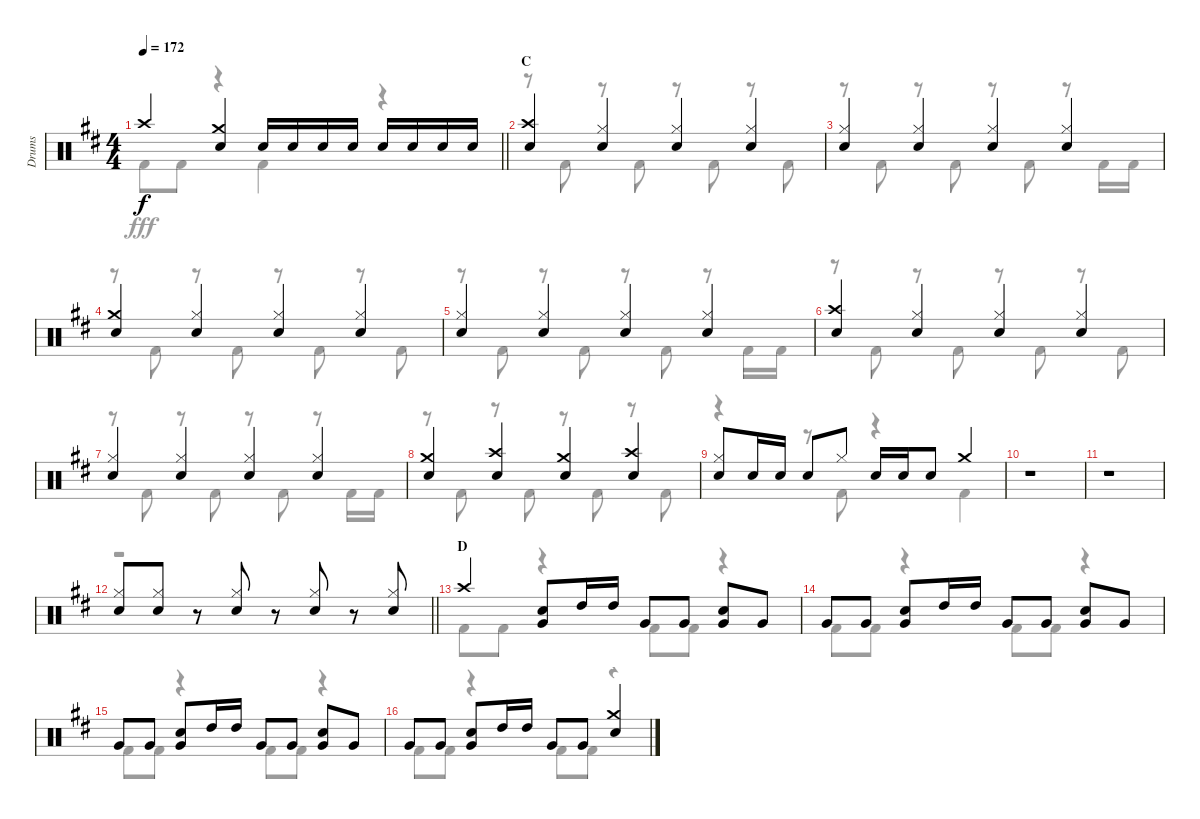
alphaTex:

\track ("Drums" "Drums") {instrument percussion}
\staff {score}
\articulation defaults
\voice
\ts (4 4)
\tempo 172
\clef neutral
\barLineRight lightlight
\ks d "Crash high (hit)".4{dy f}
("Crash medium (hit)" "Snare (hit) 2").4 "Snare (hit) 2".16 "Snare (hit) 2".16 "Snare (hit) 2".16 "Snare (hit) 2".16 "Snare (hit) 2".16 "Snare (hit) 2".16 "Snare (hit) 2".16 "Snare (hit) 2".16 |
\section ("" "C")
("Crash high (hit)" "Snare (hit) 2").4 ("Hi-Hat (closed)" "Snare (hit) 2").4 ("Hi-Hat (closed)" "Snare (hit) 2").4 ("Hi-Hat (closed)" "Snare (hit) 2").4 |
("Hi-Hat (closed)" "Snare (hit) 2").4 ("Hi-Hat (closed)" "Snare (hit) 2").4 ("Hi-Hat (closed)" "Snare (hit) 2").4 ("Hi-Hat (closed)" "Snare (hit) 2").4 |
("Crash medium (hit)" "Snare (hit) 2").4 ("Hi-Hat (closed)" "Snare (hit) 2").4 ("Hi-Hat (closed)" "Snare (hit) 2").4 ("Hi-Hat (closed)" "Snare (hit) 2").4 |
("Hi-Hat (closed)" "Snare (hit) 2").4 ("Hi-Hat (closed)" "Snare (hit) 2").4 ("Hi-Hat (closed)" "Snare (hit) 2").4 ("Hi-Hat (closed)" "Snare (hit) 2").4 |
("Crash high (hit)" "Snare (hit) 2").4 ("Hi-Hat (closed)" "Snare (hit) 2").4 ("Hi-Hat (closed)" "Snare (hit) 2").4 ("Hi-Hat (closed)" "Snare (hit) 2").4 |
("Hi-Hat (closed)" "Snare (hit) 2").4 ("Hi-Hat (closed)" "Snare (hit) 2").4 ("Hi-Hat (closed)" "Snare (hit) 2").4 ("Hi-Hat (closed)" "Snare (hit) 2").4 |
("Crash medium (hit)" "Snare (hit) 2").4 ("Crash high (hit)" "Snare (hit) 2").4 ("Crash medium (hit)" "Snare (hit) 2").4 ("Crash high (hit)" "Snare (hit) 2").4 |
("Hi-Hat (closed)" "Snare (hit) 2").8 "Snare (hit) 2".16 "Snare (hit) 2".16 "Snare (hit) 2".8 "Hi-Hat (closed)".8 "Snare (hit) 2".16 "Snare (hit) 2".16 "Snare (hit) 2".8 "Crash medium (hit)".4 |
r.1 |
r.1 |
\barLineRight lightlight
("Hi-Hat (closed)" "Snare (hit) 2").8 ("Hi-Hat (closed)" "Snare (hit) 2").8 r.8 ("Hi-Hat (closed)" "Snare (hit) 2").8 r.8 ("Hi-Hat (closed)" "Snare (hit) 2").8 r.8 ("Hi-Hat (closed)" "Snare (hit) 2").8 |
\section ("" "D")
"Crash high (hit)".4 ("Snare (hit) 2" "Very Low Tom (hit)").8 "High Tom (hit)".16 "High Tom (hit)".16 "Very Low Tom (hit)".8 "Very Low Tom (hit)".8 ("Snare (hit) 2" "Very Low Tom (hit)").8 "Very Low Tom (hit)".8 |
"Very Low Tom (hit)".8 "Very Low Tom (hit)".8 ("Snare (hit) 2" "Very Low Tom (hit)").8 "High Tom (hit)".16 "High Tom (hit)".16 "Very Low Tom (hit)".8 "Very Low Tom (hit)".8 ("Snare (hit) 2" "Very Low Tom (hit)").8 "Very Low Tom (hit)".8 |
"Very Low Tom (hit)".8 "Very Low Tom (hit)".8 ("Snare (hit) 2" "Very Low Tom (hit)").8 "High Tom (hit)".16 "High Tom (hit)".16 "Very Low Tom (hit)".8 "Very Low Tom (hit)".8 ("Snare (hit) 2" "Very Low Tom (hit)").8 "Very Low Tom (hit)".8 |
"Very Low Tom (hit)".8 "Very Low Tom (hit)".8 ("Snare (hit) 2" "Very Low Tom (hit)").8 "High Tom (hit)".16 "High Tom (hit)".16 "Very Low Tom (hit)".8 "Very Low Tom (hit)".8 ("Crash medium (hit)" "Snare (hit) 2").4
\voice
\clef neutral
\ottava regular
\simile none
\barLineRight lightlight
\ks d "Kick (hit) 2".8{dy fff} "Kick (hit) 2".8
r.4 "Kick (hit) 2".4 r.4 |
r.8 "Kick (hit) 2".8 r.8 "Kick (hit) 2".8 r.8 "Kick (hit) 2".8 r.8 "Kick (hit) 2".8 |
r.8 "Kick (hit) 2".8 r.8 "Kick (hit) 2".8 r.8 "Kick (hit) 2".8 r.8 "Kick (hit) 2".16 "Kick (hit) 2".16 |
r.8 "Kick (hit) 2".8 r.8 "Kick (hit) 2".8 r.8 "Kick (hit) 2".8 r.8 "Kick (hit) 2".8 |
r.8 "Kick (hit) 2".8 r.8 "Kick (hit) 2".8 r.8 "Kick (hit) 2".8 r.8 "Kick (hit) 2".16 "Kick (hit) 2".16 |
r.8 "Kick (hit) 2".8 r.8 "Kick (hit) 2".8 r.8 "Kick (hit) 2".8 r.8 "Kick (hit) 2".8 |
r.8 "Kick (hit) 2".8 r.8 "Kick (hit) 2".8 r.8 "Kick (hit) 2".8 r.8 "Kick (hit) 2".16 "Kick (hit) 2".16 |
r.8 "Kick (hit) 2".8 r.8 "Kick (hit) 2".8 r.8 "Kick (hit) 2".8 r.8 "Kick (hit) 2".8 |
r.4 r.8 "Kick (hit) 2".8 r.4 "Kick (hit) 2".4 |
r.1 |
r.1 |
\barLineRight lightlight
r.1 |
"Kick (hit) 2".8 "Kick (hit) 2".8 r.4 "Kick (hit) 2".8 "Kick (hit) 2".8 r.4 |
"Kick (hit) 2".8 "Kick (hit) 2".8 r.4 "Kick (hit) 2".8 "Kick (hit) 2".8 r.4 |
"Kick (hit) 2".8 "Kick (hit) 2".8 r.4 "Kick (hit) 2".8 "Kick (hit) 2".8 r.4 |
"Kick (hit) 2".8 "Kick (hit) 2".8 r.4 "Kick (hit) 2".8 "Kick (hit) 2".8 r.4
